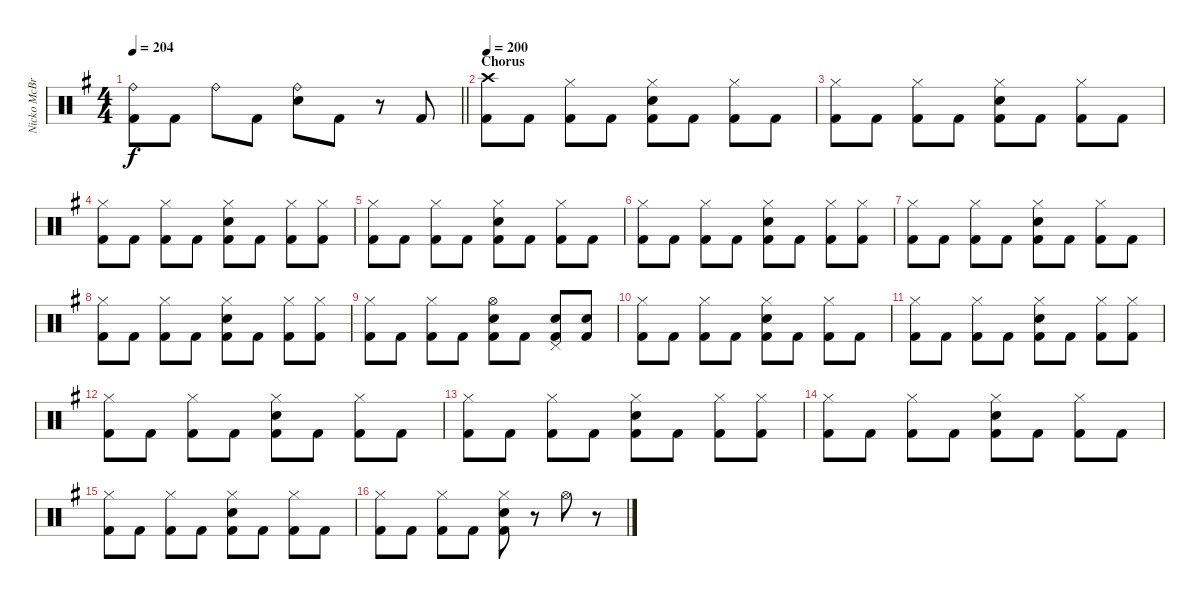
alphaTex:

\track ("Nicko McBrain (Drums)" "Nicko McBr") {instrument percussion}
\staff {score}
\articulation defaults
\ts (4 4)
\tempo 204
\clef neutral
\barLineRight lightlight
\ks eminor
("Ride (bell)" "Kick (hit) 2").8{dy f} "Kick (hit) 2".8 "Ride (bell)".8 "Kick (hit) 2".8 ("Ride (bell)" "Snare (hit) 2").8 "Kick (hit) 2".8 r.8 "Kick (hit) 2".8 |
\section ("" "Chorus")
\tempo 200
("Crash high (hit)" "Kick (hit) 2").8 "Kick (hit) 2".8 ("Hi-Hat (closed)" "Kick (hit) 2").8 "Kick (hit) 2".8 ("Hi-Hat (closed)" "Snare (hit) 2" "Kick (hit) 2").8 "Kick (hit) 2".8 ("Hi-Hat (closed)" "Kick (hit) 2").8 "Kick (hit) 2".8 |
("Hi-Hat (closed)" "Kick (hit) 2").8 "Kick (hit) 2".8 ("Hi-Hat (closed)" "Kick (hit) 2").8 "Kick (hit) 2".8 ("Hi-Hat (closed)" "Snare (hit) 2" "Kick (hit) 2").8 "Kick (hit) 2".8 ("Hi-Hat (closed)" "Kick (hit) 2").8 "Kick (hit) 2".8 |
("Hi-Hat (closed)" "Kick (hit) 2").8 "Kick (hit) 2".8 ("Hi-Hat (closed)" "Kick (hit) 2").8 "Kick (hit) 2".8 ("Hi-Hat (closed)" "Snare (hit) 2" "Kick (hit) 2").8 "Kick (hit) 2".8 ("Hi-Hat (closed)" "Kick (hit) 2").8 ("Hi-Hat (closed)" "Kick (hit) 2").8 |
("Hi-Hat (closed)" "Kick (hit) 2").8 "Kick (hit) 2".8 ("Hi-Hat (closed)" "Kick (hit) 2").8 "Kick (hit) 2".8 ("Hi-Hat (closed)" "Snare (hit) 2" "Kick (hit) 2").8 "Kick (hit) 2".8 ("Hi-Hat (closed)" "Kick (hit) 2").8 "Kick (hit) 2".8 |
("Hi-Hat (closed)" "Kick (hit) 2").8 "Kick (hit) 2".8 ("Hi-Hat (closed)" "Kick (hit) 2").8 "Kick (hit) 2".8 ("Hi-Hat (closed)" "Snare (hit) 2" "Kick (hit) 2").8 "Kick (hit) 2".8 ("Hi-Hat (closed)" "Kick (hit) 2").8 ("Hi-Hat (closed)" "Kick (hit) 2").8 |
("Hi-Hat (closed)" "Kick (hit) 2").8 "Kick (hit) 2".8 ("Hi-Hat (closed)" "Kick (hit) 2").8 "Kick (hit) 2".8 ("Hi-Hat (closed)" "Snare (hit) 2" "Kick (hit) 2").8 "Kick (hit) 2".8 ("Hi-Hat (closed)" "Kick (hit) 2").8 "Kick (hit) 2".8 |
("Hi-Hat (closed)" "Kick (hit) 2").8 "Kick (hit) 2".8 ("Hi-Hat (closed)" "Kick (hit) 2").8 "Kick (hit) 2".8 ("Hi-Hat (closed)" "Snare (hit) 2" "Kick (hit) 2").8 "Kick (hit) 2".8 ("Hi-Hat (closed)" "Kick (hit) 2").8 ("Hi-Hat (closed)" "Kick (hit) 2").8 |
("Hi-Hat (closed)" "Kick (hit) 2").8 "Kick (hit) 2".8 ("Hi-Hat (closed)" "Kick (hit) 2").8 "Kick (hit) 2".8 ("Hi-Hat (open)" "Snare (hit) 2" "Kick (hit) 2").8 "Kick (hit) 2".8 ("Pedal Hi-Hat (hit)" "Snare (hit) 2" "Kick (hit) 2").8 ("Snare (hit) 2" "Kick (hit) 2").8 |
("Hi-Hat (closed)" "Kick (hit) 2").8 "Kick (hit) 2".8 ("Hi-Hat (closed)" "Kick (hit) 2").8 "Kick (hit) 2".8 ("Hi-Hat (closed)" "Snare (hit) 2" "Kick (hit) 2").8 "Kick (hit) 2".8 ("Hi-Hat (closed)" "Kick (hit) 2").8 "Kick (hit) 2".8 |
("Hi-Hat (closed)" "Kick (hit) 2").8 "Kick (hit) 2".8 ("Hi-Hat (closed)" "Kick (hit) 2").8 "Kick (hit) 2".8 ("Hi-Hat (closed)" "Snare (hit) 2" "Kick (hit) 2").8 "Kick (hit) 2".8 ("Hi-Hat (closed)" "Kick (hit) 2").8 ("Hi-Hat (closed)" "Kick (hit) 2").8 |
("Hi-Hat (closed)" "Kick (hit) 2").8 "Kick (hit) 2".8 ("Hi-Hat (closed)" "Kick (hit) 2").8 "Kick (hit) 2".8 ("Hi-Hat (closed)" "Snare (hit) 2" "Kick (hit) 2").8 "Kick (hit) 2".8 ("Hi-Hat (closed)" "Kick (hit) 2").8 "Kick (hit) 2".8 |
("Hi-Hat (closed)" "Kick (hit) 2").8 "Kick (hit) 2".8 ("Hi-Hat (closed)" "Kick (hit) 2").8 "Kick (hit) 2".8 ("Hi-Hat (closed)" "Snare (hit) 2" "Kick (hit) 2").8 "Kick (hit) 2".8 ("Hi-Hat (closed)" "Kick (hit) 2").8 ("Hi-Hat (closed)" "Kick (hit) 2").8 |
("Hi-Hat (closed)" "Kick (hit) 2").8 "Kick (hit) 2".8 ("Hi-Hat (closed)" "Kick (hit) 2").8 "Kick (hit) 2".8 ("Hi-Hat (closed)" "Snare (hit) 2" "Kick (hit) 2").8 "Kick (hit) 2".8 ("Hi-Hat (closed)" "Kick (hit) 2").8 "Kick (hit) 2".8 |
("Hi-Hat (closed)" "Kick (hit) 2").8 "Kick (hit) 2".8 ("Hi-Hat (closed)" "Kick (hit) 2").8 "Kick (hit) 2".8 ("Hi-Hat (closed)" "Snare (hit) 2" "Kick (hit) 2").8 "Kick (hit) 2".8 ("Hi-Hat (closed)" "Kick (hit) 2").8 "Kick (hit) 2".8 |
("Hi-Hat (closed)" "Kick (hit) 2").8 "Kick (hit) 2".8 ("Hi-Hat (closed)" "Kick (hit) 2").8 "Kick (hit) 2".8 ("Hi-Hat (closed)" "Snare (hit) 2" "Kick (hit) 2").8 r.8 "Hi-Hat (open)".8 r.8
